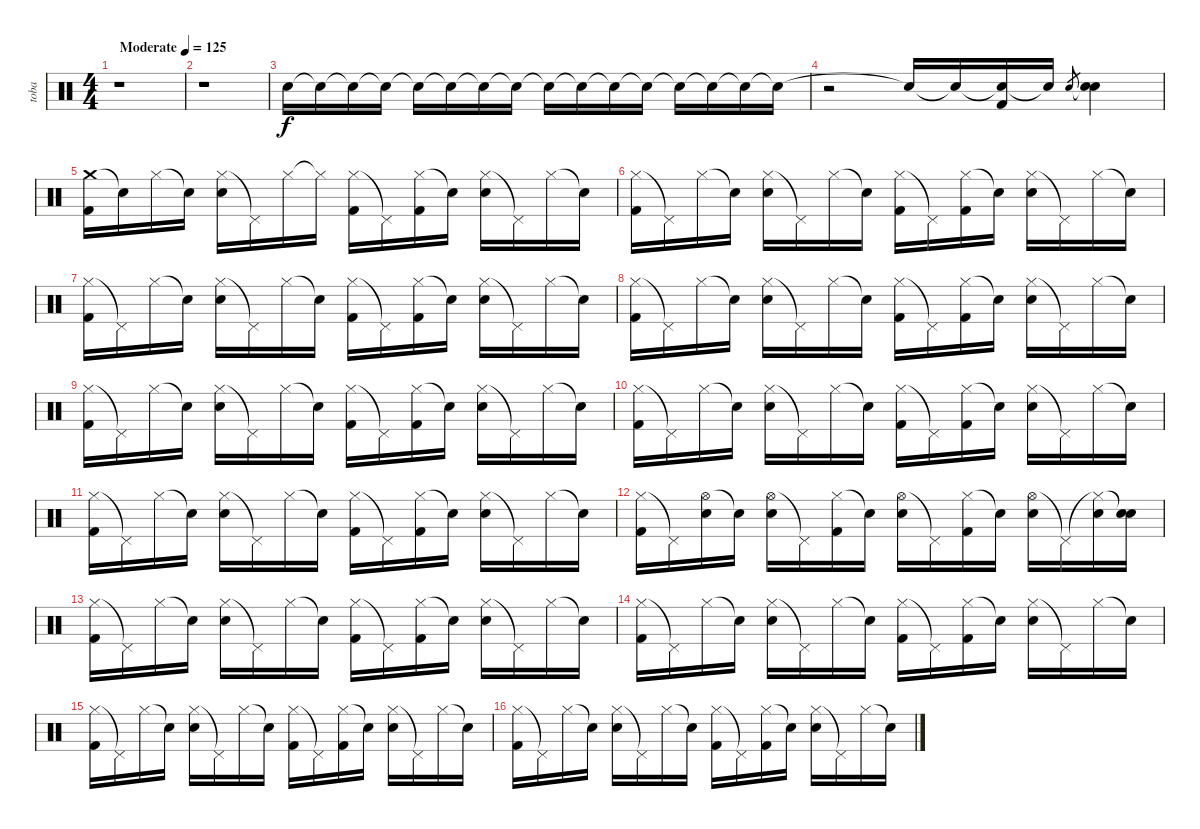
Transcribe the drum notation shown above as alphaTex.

\track ("toba" "toba") {instrument percussion}
\staff {score}
\articulation defaults
\ts (4 4)
\tempo (125 "Moderate")
\clef neutral
\ks c
r.1{dy f} |
r.1 |
"Snare (hit)".16 "Snare (hit)"{t}.16 "Snare (hit)"{t}.16 "Snare (hit)"{t}.16 "Snare (hit)"{t}.16 "Snare (hit)"{t}.16 "Snare (hit)"{t}.16 "Snare (hit)"{t}.16 "Snare (hit)"{t}.16 "Snare (hit)"{t}.16 "Snare (hit)"{t}.16 "Snare (hit)"{t}.16 "Snare (hit)"{t}.16 "Snare (hit)"{t}.16 "Snare (hit)"{t}.16 "Snare (hit)"{t}.16 |
r.2 "Snare (hit)"{t}.16 "Snare (hit)"{t}.16 ("Snare (hit)"{t} "Kick (hit) 2").16 "Snare (hit)"{t}.16 "Electric Snare (hit)".8{gr} ("Snare (hit)"{t} "Electric Snare (hit)").4 |
("Crash medium (hit)" "Kick (hit) 2").16 "Snare (hit)"{t}.16 "Hi-Hat (closed)".16 "Snare (hit)"{t}.16 ("Hi-Hat (closed)" "Electric Snare (hit)").16 "Pedal Hi-Hat (hit)"{t}.16 "Hi-Hat (closed)".16 "Hi-Hat (closed)"{t}.16 ("Hi-Hat (closed)" "Kick (hit) 2").16 "Pedal Hi-Hat (hit)"{t}.16 ("Hi-Hat (closed)" "Kick (hit) 2").16 "Snare (hit)"{t}.16 ("Hi-Hat (closed)" "Electric Snare (hit)").16 "Pedal Hi-Hat (hit)"{t}.16 "Hi-Hat (closed)".16 "Snare (hit)"{t}.16 |
("Hi-Hat (closed)" "Kick (hit) 2").16 "Pedal Hi-Hat (hit)"{t}.16 "Hi-Hat (closed)".16 "Snare (hit)"{t}.16 ("Hi-Hat (closed)" "Electric Snare (hit)").16 "Pedal Hi-Hat (hit)"{t}.16 "Hi-Hat (closed)".16 "Snare (hit)"{t}.16 ("Hi-Hat (closed)" "Kick (hit) 2").16 "Pedal Hi-Hat (hit)"{t}.16 ("Hi-Hat (closed)" "Kick (hit) 2").16 "Snare (hit)"{t}.16 ("Hi-Hat (closed)" "Electric Snare (hit)").16 "Pedal Hi-Hat (hit)"{t}.16 "Hi-Hat (closed)".16 "Snare (hit)"{t}.16 |
("Hi-Hat (closed)" "Kick (hit) 2").16 "Pedal Hi-Hat (hit)"{t}.16 "Hi-Hat (closed)".16 "Snare (hit)"{t}.16 ("Hi-Hat (closed)" "Electric Snare (hit)").16 "Pedal Hi-Hat (hit)"{t}.16 "Hi-Hat (closed)".16 "Snare (hit)"{t}.16 ("Hi-Hat (closed)" "Kick (hit) 2").16 "Pedal Hi-Hat (hit)"{t}.16 ("Hi-Hat (closed)" "Kick (hit) 2").16 "Snare (hit)"{t}.16 ("Hi-Hat (closed)" "Electric Snare (hit)").16 "Pedal Hi-Hat (hit)"{t}.16 "Hi-Hat (closed)".16 "Snare (hit)"{t}.16 |
("Hi-Hat (closed)" "Kick (hit) 2").16 "Pedal Hi-Hat (hit)"{t}.16 "Hi-Hat (closed)".16 "Snare (hit)"{t}.16 ("Hi-Hat (closed)" "Electric Snare (hit)").16 "Pedal Hi-Hat (hit)"{t}.16 "Hi-Hat (closed)".16 "Snare (hit)"{t}.16 ("Hi-Hat (closed)" "Kick (hit) 2").16 "Pedal Hi-Hat (hit)"{t}.16 ("Hi-Hat (closed)" "Kick (hit) 2").16 "Snare (hit)"{t}.16 ("Hi-Hat (closed)" "Electric Snare (hit)").16 "Pedal Hi-Hat (hit)"{t}.16 "Hi-Hat (closed)".16 "Snare (hit)"{t}.16 |
("Hi-Hat (closed)" "Kick (hit) 2").16 "Pedal Hi-Hat (hit)"{t}.16 "Hi-Hat (closed)".16 "Snare (hit)"{t}.16 ("Hi-Hat (closed)" "Electric Snare (hit)").16 "Pedal Hi-Hat (hit)"{t}.16 "Hi-Hat (closed)".16 "Snare (hit)"{t}.16 ("Hi-Hat (closed)" "Kick (hit) 2").16 "Pedal Hi-Hat (hit)"{t}.16 ("Hi-Hat (closed)" "Kick (hit) 2").16 "Snare (hit)"{t}.16 ("Hi-Hat (closed)" "Electric Snare (hit)").16 "Pedal Hi-Hat (hit)"{t}.16 "Hi-Hat (closed)".16 "Snare (hit)"{t}.16 |
("Hi-Hat (closed)" "Kick (hit) 2").16 "Pedal Hi-Hat (hit)"{t}.16 "Hi-Hat (closed)".16 "Snare (hit)"{t}.16 ("Hi-Hat (closed)" "Electric Snare (hit)").16 "Pedal Hi-Hat (hit)"{t}.16 "Hi-Hat (closed)".16 "Snare (hit)"{t}.16 ("Hi-Hat (closed)" "Kick (hit) 2").16 "Pedal Hi-Hat (hit)"{t}.16 ("Hi-Hat (closed)" "Kick (hit) 2").16 "Snare (hit)"{t}.16 ("Hi-Hat (closed)" "Electric Snare (hit)").16 "Pedal Hi-Hat (hit)"{t}.16 "Hi-Hat (closed)".16 "Snare (hit)"{t}.16 |
("Hi-Hat (closed)" "Kick (hit) 2").16 "Pedal Hi-Hat (hit)"{t}.16 "Hi-Hat (closed)".16 "Snare (hit)"{t}.16 ("Hi-Hat (closed)" "Electric Snare (hit)").16 "Pedal Hi-Hat (hit)"{t}.16 "Hi-Hat (closed)".16 "Snare (hit)"{t}.16 ("Hi-Hat (closed)" "Kick (hit) 2").16 "Pedal Hi-Hat (hit)"{t}.16 ("Hi-Hat (closed)" "Kick (hit) 2").16 "Snare (hit)"{t}.16 ("Hi-Hat (closed)" "Electric Snare (hit)").16 "Pedal Hi-Hat (hit)"{t}.16 "Hi-Hat (closed)".16 "Snare (hit)"{t}.16 |
("Hi-Hat (closed)" "Kick (hit) 2").16 "Pedal Hi-Hat (hit)"{t}.16 ("Hi-Hat (open)" "Electric Snare (hit)").16 "Snare (hit)"{t}.16 ("Hi-Hat (open)" "Electric Snare (hit)").16 "Pedal Hi-Hat (hit)"{t}.16 ("Hi-Hat (closed)" "Kick (hit) 2").16 "Snare (hit)"{t}.16 ("Hi-Hat (open)" "Electric Snare (hit)").16 "Pedal Hi-Hat (hit)"{t}.16 ("Hi-Hat (closed)" "Kick (hit) 2").16 "Snare (hit)"{t}.16 ("Hi-Hat (open)" "Electric Snare (hit)").16 "Pedal Hi-Hat (hit)"{t}.16 ("Hi-Hat (closed)"{t} "Electric Snare (hit)").16 ("Snare (hit)"{t} "Electric Snare (hit)").16 |
("Hi-Hat (closed)" "Kick (hit) 2").16 "Pedal Hi-Hat (hit)"{t}.16 "Hi-Hat (closed)".16 "Snare (hit)"{t}.16 ("Hi-Hat (closed)" "Electric Snare (hit)").16 "Pedal Hi-Hat (hit)"{t}.16 "Hi-Hat (closed)".16 "Snare (hit)"{t}.16 ("Hi-Hat (closed)" "Kick (hit) 2").16 "Pedal Hi-Hat (hit)"{t}.16 ("Hi-Hat (closed)" "Kick (hit) 2").16 "Snare (hit)"{t}.16 ("Hi-Hat (closed)" "Electric Snare (hit)").16 "Pedal Hi-Hat (hit)"{t}.16 "Hi-Hat (closed)".16 "Snare (hit)"{t}.16 |
("Hi-Hat (closed)" "Kick (hit) 2").16 "Pedal Hi-Hat (hit)"{t}.16 "Hi-Hat (closed)".16 "Snare (hit)"{t}.16 ("Hi-Hat (closed)" "Electric Snare (hit)").16 "Pedal Hi-Hat (hit)"{t}.16 "Hi-Hat (closed)".16 "Snare (hit)"{t}.16 ("Hi-Hat (closed)" "Kick (hit) 2").16 "Pedal Hi-Hat (hit)"{t}.16 ("Hi-Hat (closed)" "Kick (hit) 2").16 "Snare (hit)"{t}.16 ("Hi-Hat (closed)" "Electric Snare (hit)").16 "Pedal Hi-Hat (hit)"{t}.16 "Hi-Hat (closed)".16 "Snare (hit)"{t}.16 |
("Hi-Hat (closed)" "Kick (hit) 2").16 "Pedal Hi-Hat (hit)"{t}.16 "Hi-Hat (closed)".16 "Snare (hit)"{t}.16 ("Hi-Hat (closed)" "Electric Snare (hit)").16 "Pedal Hi-Hat (hit)"{t}.16 "Hi-Hat (closed)".16 "Snare (hit)"{t}.16 ("Hi-Hat (closed)" "Kick (hit) 2").16 "Pedal Hi-Hat (hit)"{t}.16 ("Hi-Hat (closed)" "Kick (hit) 2").16 "Snare (hit)"{t}.16 ("Hi-Hat (closed)" "Electric Snare (hit)").16 "Pedal Hi-Hat (hit)"{t}.16 "Hi-Hat (closed)".16 "Snare (hit)"{t}.16 |
("Hi-Hat (closed)" "Kick (hit) 2").16 "Pedal Hi-Hat (hit)"{t}.16 "Hi-Hat (closed)".16 "Snare (hit)"{t}.16 ("Hi-Hat (closed)" "Electric Snare (hit)").16 "Pedal Hi-Hat (hit)"{t}.16 "Hi-Hat (closed)".16 "Snare (hit)"{t}.16 ("Hi-Hat (closed)" "Kick (hit) 2").16 "Pedal Hi-Hat (hit)"{t}.16 ("Hi-Hat (closed)" "Kick (hit) 2").16 "Snare (hit)"{t}.16 ("Hi-Hat (closed)" "Electric Snare (hit)").16 "Pedal Hi-Hat (hit)"{t}.16 "Hi-Hat (closed)".16 "Snare (hit)"{t}.16
